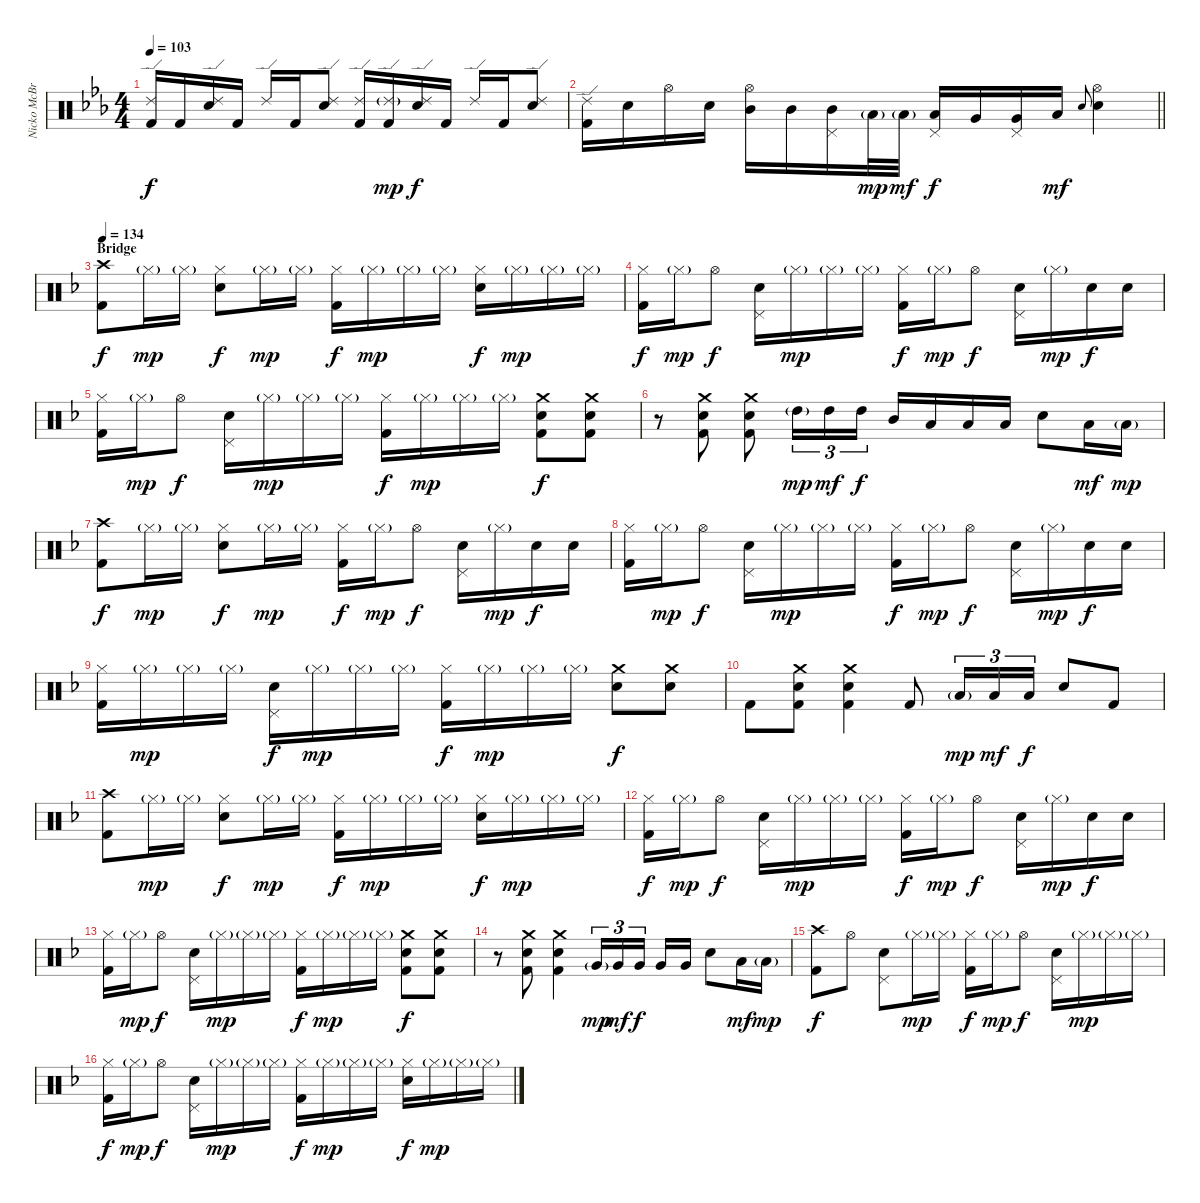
\track ("Nicko McBrain" "Nicko McBr") {instrument percussion}
\staff {score}
\articulation defaults
\ts (4 4)
\tempo 103
\clef neutral
\ks cminor
("Ride (edge) 2" "Kick (hit) 2").16{dy f} "Kick (hit) 2".16 ("Ride (edge) 2" "Electric Snare (hit)").16 "Kick (hit) 2".16 "Ride (edge) 2".16 "Kick (hit) 2".16 ("Ride (edge) 2" "Electric Snare (hit)").8 ("Ride (edge) 2" "Kick (hit) 2").16 ("Ride (edge) 2"{g} "Kick (hit) 2").16{dy mp} ("Ride (edge) 2" "Electric Snare (hit)").16{dy f} "Kick (hit) 2".16 "Ride (edge) 2".16 "Kick (hit) 2".16 ("Ride (edge) 2" "Electric Snare (hit)").8 |
\barLineRight lightlight
("Ride (edge) 2" "Kick (hit) 2").16 "Electric Snare (hit)".16 "Hi-Hat (open)".16 "Electric Snare (hit)".16 ("Hi-Hat (open)" "Mid Tom (hit)").16 "Mid Tom (hit)".16 ("Pedal Hi-Hat (hit)" "Mid Tom (hit)").16 "Low Tom (hit)"{g}.32{dy mp} "Low Tom (hit)"{g}.32{dy mf} ("Pedal Hi-Hat (hit)" "Low Tom (hit)").16{dy f} "Very Low Tom (hit)".16 ("Pedal Hi-Hat (hit)" "Very Low Tom (hit)").16 "Low Floor Tom (hit)".16{dy mf} "Electric Snare (hit)".8{gr onbeat} ("Hi-Hat (open)" "Electric Snare (hit)").4 |
\section ("" "Bridge")
\tempo 134
\ks dminor
("Crash high (hit)" "Kick (hit) 2").8{dy f} "Hi-Hat (closed)"{g}.16{dy mp} "Hi-Hat (closed)"{g}.16 ("Hi-Hat (closed)" "Electric Snare (hit)").8{dy f} "Hi-Hat (closed)"{g}.16{dy mp} "Hi-Hat (closed)"{g}.16 ("Hi-Hat (closed)" "Kick (hit) 2").16{dy f} "Hi-Hat (closed)"{g}.16{dy mp} "Hi-Hat (closed)"{g}.16 "Hi-Hat (closed)"{g}.16 ("Hi-Hat (closed)" "Electric Snare (hit)").16{dy f} "Hi-Hat (closed)"{g}.16{dy mp} "Hi-Hat (closed)"{g}.16 "Hi-Hat (closed)"{g}.16 |
("Hi-Hat (closed)" "Kick (hit) 2").16{dy f} "Hi-Hat (closed)"{g}.16{dy mp} "Hi-Hat (open)".8{dy f} ("Pedal Hi-Hat (hit)" "Electric Snare (hit)").16 "Hi-Hat (closed)"{g}.16{dy mp} "Hi-Hat (closed)"{g}.16 "Hi-Hat (closed)"{g}.16 ("Hi-Hat (closed)" "Kick (hit) 2").16{dy f} "Hi-Hat (closed)"{g}.16{dy mp} "Hi-Hat (open)".8{dy f} ("Pedal Hi-Hat (hit)" "Electric Snare (hit)").16 "Hi-Hat (closed)"{g}.16{dy mp} "Electric Snare (hit)".16{dy f} "Electric Snare (hit)".16 |
("Hi-Hat (closed)" "Kick (hit) 2").16 "Hi-Hat (closed)"{g}.16{dy mp} "Hi-Hat (open)".8{dy f} ("Pedal Hi-Hat (hit)" "Electric Snare (hit)").16 "Hi-Hat (closed)"{g}.16{dy mp} "Hi-Hat (closed)"{g}.16 "Hi-Hat (closed)"{g}.16 ("Hi-Hat (closed)" "Kick (hit) 2").16{dy f} "Hi-Hat (closed)"{g}.16{dy mp} "Hi-Hat (closed)"{g}.16 "Hi-Hat (closed)"{g}.16 ("Crash medium (hit)" "Electric Snare (hit)" "Kick (hit) 2").8{dy f} ("Crash medium (hit)" "Electric Snare (hit)" "Kick (hit) 2").8 |
r.8 ("Crash medium (hit)" "Electric Snare (hit)" "Kick (hit) 2").8 ("Crash medium (hit)" "Electric Snare (hit)" "Kick (hit) 2").8 "High Tom (hit)"{g}.16{tu (3 2) dy mp} "High Tom (hit)".16{tu (3 2) dy mf} "High Tom (hit)".16{tu (3 2) dy f} "Mid Tom (hit)".16 "Low Tom (hit)".16 "Low Tom (hit)".16 "Low Floor Tom (hit)".16 "Electric Snare (hit)".8 "Low Floor Tom (hit)".16{dy mf} "Low Floor Tom (hit)"{g}.16{dy mp} |
("Crash high (hit)" "Kick (hit) 2").8{dy f} "Hi-Hat (closed)"{g}.16{dy mp} "Hi-Hat (closed)"{g}.16 ("Hi-Hat (closed)" "Electric Snare (hit)").8{dy f} "Hi-Hat (closed)"{g}.16{dy mp} "Hi-Hat (closed)"{g}.16 ("Hi-Hat (closed)" "Kick (hit) 2").16{dy f} "Hi-Hat (closed)"{g}.16{dy mp} "Hi-Hat (open)".8{dy f} ("Pedal Hi-Hat (hit)" "Electric Snare (hit)").16 "Hi-Hat (closed)"{g}.16{dy mp} "Electric Snare (hit)".16{dy f} "Electric Snare (hit)".16 |
("Hi-Hat (closed)" "Kick (hit) 2").16 "Hi-Hat (closed)"{g}.16{dy mp} "Hi-Hat (open)".8{dy f} ("Pedal Hi-Hat (hit)" "Electric Snare (hit)").16 "Hi-Hat (closed)"{g}.16{dy mp} "Hi-Hat (closed)"{g}.16 "Hi-Hat (closed)"{g}.16 ("Hi-Hat (closed)" "Kick (hit) 2").16{dy f} "Hi-Hat (closed)"{g}.16{dy mp} "Hi-Hat (open)".8{dy f} ("Pedal Hi-Hat (hit)" "Electric Snare (hit)").16 "Hi-Hat (closed)"{g}.16{dy mp} "Electric Snare (hit)".16{dy f} "Electric Snare (hit)".16 |
("Hi-Hat (closed)" "Kick (hit) 2").16 "Hi-Hat (closed)"{g}.16{dy mp} "Hi-Hat (closed)"{g}.16 "Hi-Hat (closed)"{g}.16 ("Pedal Hi-Hat (hit)" "Electric Snare (hit)").16{dy f} "Hi-Hat (closed)"{g}.16{dy mp} "Hi-Hat (closed)"{g}.16 "Hi-Hat (closed)"{g}.16 ("Hi-Hat (closed)" "Kick (hit) 2").16{dy f} "Hi-Hat (closed)"{g}.16{dy mp} "Hi-Hat (closed)"{g}.16 "Hi-Hat (closed)"{g}.16 ("Crash medium (hit)" "Electric Snare (hit)").8{dy f} ("Crash medium (hit)" "Electric Snare (hit)").8 |
"Kick (hit) 2".8 ("Crash medium (hit)" "Electric Snare (hit)" "Kick (hit) 2").8 ("Crash medium (hit)" "Electric Snare (hit)" "Kick (hit) 2").4 "Kick (hit) 2".8 "Low Tom (hit)"{g}.16{tu (3 2) dy mp} "Low Tom (hit)".16{tu (3 2) dy mf} "Low Tom (hit)".16{tu (3 2) dy f} "Electric Snare (hit)".8 "Kick (hit) 2".8 |
("Crash high (hit)" "Kick (hit) 2").8 "Hi-Hat (closed)"{g}.16{dy mp} "Hi-Hat (closed)"{g}.16 ("Hi-Hat (closed)" "Electric Snare (hit)").8{dy f} "Hi-Hat (closed)"{g}.16{dy mp} "Hi-Hat (closed)"{g}.16 ("Hi-Hat (closed)" "Kick (hit) 2").16{dy f} "Hi-Hat (closed)"{g}.16{dy mp} "Hi-Hat (closed)"{g}.16 "Hi-Hat (closed)"{g}.16 ("Hi-Hat (closed)" "Electric Snare (hit)").16{dy f} "Hi-Hat (closed)"{g}.16{dy mp} "Hi-Hat (closed)"{g}.16 "Hi-Hat (closed)"{g}.16 |
("Hi-Hat (closed)" "Kick (hit) 2").16{dy f} "Hi-Hat (closed)"{g}.16{dy mp} "Hi-Hat (open)".8{dy f} ("Pedal Hi-Hat (hit)" "Electric Snare (hit)").16 "Hi-Hat (closed)"{g}.16{dy mp} "Hi-Hat (closed)"{g}.16 "Hi-Hat (closed)"{g}.16 ("Hi-Hat (closed)" "Kick (hit) 2").16{dy f} "Hi-Hat (closed)"{g}.16{dy mp} "Hi-Hat (open)".8{dy f} ("Pedal Hi-Hat (hit)" "Electric Snare (hit)").16 "Hi-Hat (closed)"{g}.16{dy mp} "Electric Snare (hit)".16{dy f} "Electric Snare (hit)".16 |
("Hi-Hat (closed)" "Kick (hit) 2").16 "Hi-Hat (closed)"{g}.16{dy mp} "Hi-Hat (open)".8{dy f} ("Pedal Hi-Hat (hit)" "Electric Snare (hit)").16 "Hi-Hat (closed)"{g}.16{dy mp} "Hi-Hat (closed)"{g}.16 "Hi-Hat (closed)"{g}.16 ("Hi-Hat (closed)" "Kick (hit) 2").16{dy f} "Hi-Hat (closed)"{g}.16{dy mp} "Hi-Hat (closed)"{g}.16 "Hi-Hat (closed)"{g}.16 ("Crash medium (hit)" "Electric Snare (hit)" "Kick (hit) 2").8{dy f} ("Crash medium (hit)" "Electric Snare (hit)" "Kick (hit) 2").8 |
r.8 ("Crash medium (hit)" "Electric Snare (hit)" "Kick (hit) 2").8 ("Crash medium (hit)" "Electric Snare (hit)" "Kick (hit) 2").4 "Very Low Tom (hit)"{g}.16{tu (3 2) dy mp} "Very Low Tom (hit)".16{tu (3 2) dy mf} "Very Low Tom (hit)".16{tu (3 2) dy f beam splitsecondary} "Very Low Tom (hit)".16 "Very Low Tom (hit)".16 "Electric Snare (hit)".8 "Low Floor Tom (hit)".16{dy mf} "Low Floor Tom (hit)"{g}.16{dy mp} |
("Crash high (hit)" "Kick (hit) 2").8{dy f} "Hi-Hat (open)".8 ("Pedal Hi-Hat (hit)" "Electric Snare (hit)").8 "Hi-Hat (closed)"{g}.16{dy mp} "Hi-Hat (closed)"{g}.16 ("Hi-Hat (closed)" "Kick (hit) 2").16{dy f} "Hi-Hat (closed)"{g}.16{dy mp} "Hi-Hat (open)".8{dy f} ("Pedal Hi-Hat (hit)" "Electric Snare (hit)").16 "Hi-Hat (closed)"{g}.16{dy mp} "Hi-Hat (closed)"{g}.16 "Hi-Hat (closed)"{g}.16 |
("Hi-Hat (closed)" "Kick (hit) 2").16{dy f} "Hi-Hat (closed)"{g}.16{dy mp} "Hi-Hat (open)".8{dy f} ("Pedal Hi-Hat (hit)" "Electric Snare (hit)").16 "Hi-Hat (closed)"{g}.16{dy mp} "Hi-Hat (closed)"{g}.16 "Hi-Hat (closed)"{g}.16 ("Hi-Hat (closed)" "Kick (hit) 2").16{dy f} "Hi-Hat (closed)"{g}.16{dy mp} "Hi-Hat (closed)"{g}.16 "Hi-Hat (closed)"{g}.16 ("Hi-Hat (closed)" "Electric Snare (hit)").16{dy f} "Hi-Hat (closed)"{g}.16{dy mp} "Hi-Hat (closed)"{g}.16 "Hi-Hat (closed)"{g}.16
